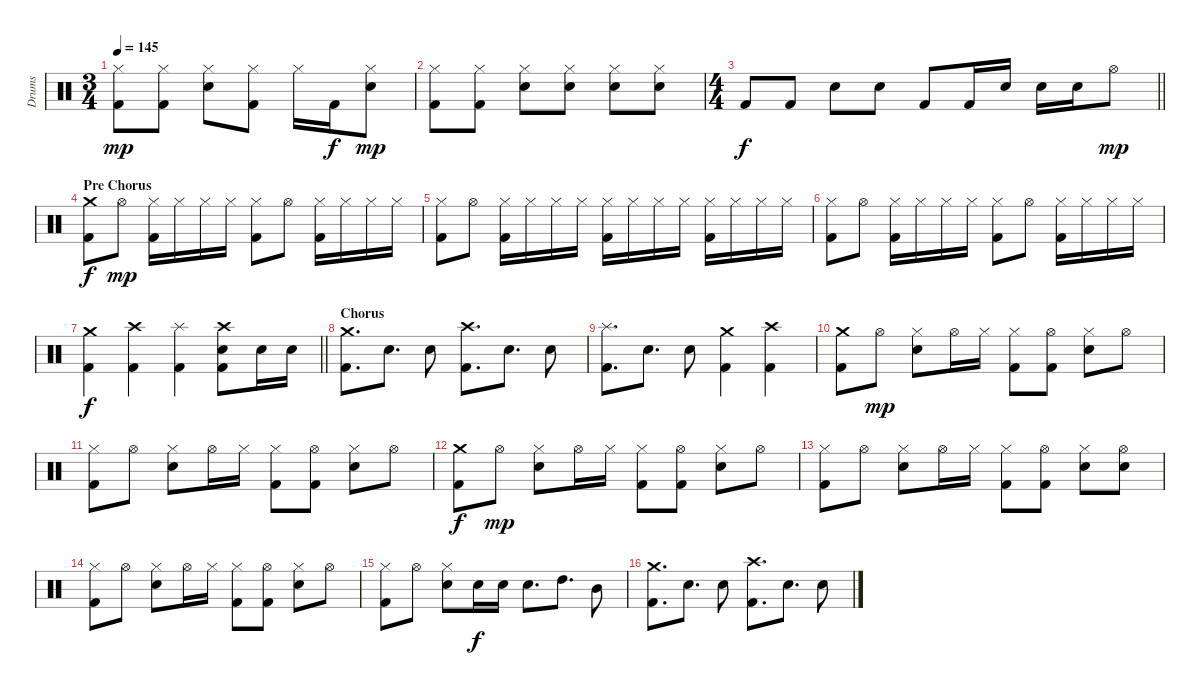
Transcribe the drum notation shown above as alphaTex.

\track ("Drums" "Drums") {instrument percussion}
\staff {score}
\articulation defaults
\ts (3 4)
\tempo 145
\clef neutral
\ks c
("Hi-Hat (closed)" "Kick (hit) 2").8{dy mp} ("Hi-Hat (closed)" "Kick (hit) 2").8 ("Hi-Hat (closed)" "Snare (hit) 2").8 ("Hi-Hat (closed)" "Kick (hit) 2").8 "Hi-Hat (closed)".16 "Kick (hit) 2".16{dy f} ("Hi-Hat (closed)" "Snare (hit) 2").8{dy mp} |
("Hi-Hat (closed)" "Kick (hit) 2").8 ("Hi-Hat (closed)" "Kick (hit) 2").8 ("Hi-Hat (closed)" "Snare (hit) 2").8 ("Hi-Hat (closed)" "Snare (hit) 2").8 ("Hi-Hat (closed)" "Snare (hit) 2").8 ("Hi-Hat (closed)" "Snare (hit) 2").8 |
\ts (4 4)
\barLineRight lightlight "Kick (hit) 2".8{dy f} "Kick (hit) 2".8 "Snare (hit) 2".8 "Snare (hit) 2".8 "Kick (hit) 2".8 "Kick (hit) 2".16 "Snare (hit) 2".16 "Snare (hit) 2".16 "Snare (hit) 2".16 "Hi-Hat (open)".8{dy mp}
|
\section ("" "Pre Chorus")
("Crash medium (hit)" "Kick (hit) 2").8{dy f} "Hi-Hat (open)".8{dy mp} ("Hi-Hat (closed)" "Kick (hit) 2").16 "Hi-Hat (closed)".16 "Hi-Hat (closed)".16 "Hi-Hat (closed)".16 ("Hi-Hat (closed)" "Kick (hit) 2").8 "Hi-Hat (open)".8 ("Hi-Hat (closed)" "Kick (hit) 2").16 "Hi-Hat (closed)".16 "Hi-Hat (closed)".16 "Hi-Hat (closed)".16 |
("Hi-Hat (closed)" "Kick (hit) 2").8 "Hi-Hat (open)".8 ("Hi-Hat (closed)" "Kick (hit) 2").16 "Hi-Hat (closed)".16 "Hi-Hat (closed)".16 "Hi-Hat (closed)".16 ("Hi-Hat (closed)" "Kick (hit) 2").16 "Hi-Hat (closed)".16 "Hi-Hat (closed)".16 "Hi-Hat (closed)".16 ("Hi-Hat (closed)" "Kick (hit) 2").16 "Hi-Hat (closed)".16 "Hi-Hat (closed)".16 "Hi-Hat (closed)".16 |
("Hi-Hat (closed)" "Kick (hit) 2").8 "Hi-Hat (open)".8 ("Hi-Hat (closed)" "Kick (hit) 2").16 "Hi-Hat (closed)".16 "Hi-Hat (closed)".16 "Hi-Hat (closed)".16 ("Hi-Hat (closed)" "Kick (hit) 2").8 "Hi-Hat (open)".8 ("Hi-Hat (closed)" "Kick (hit) 2").16 "Hi-Hat (closed)".16 "Hi-Hat (closed)".16 "Hi-Hat (closed)".16 |
\barLineRight lightlight
("Crash medium (hit)" "Kick (hit) 2").4{dy f} ("Crash high (hit)" "Kick (hit) 2").4 ("Splash (hit)" "Kick (hit) 2").4 ("Crash high (hit)" "Snare (hit) 2" "Kick (hit) 2").8 "Snare (hit) 2".16 "Snare (hit) 2".16 |
\section ("" "Chorus")
("Crash medium (hit)" "Kick (hit) 2").8{d} "Snare (hit) 2".8{d} "Snare (hit) 2".8 ("Crash high (hit)" "Kick (hit) 2").8{d} "Snare (hit) 2".8{d} "Snare (hit) 2".8 |
("Splash (hit)" "Kick (hit) 2").8{d} "Snare (hit) 2".8{d} "Snare (hit) 2".8 ("Crash medium (hit)" "Kick (hit) 2").4 ("Crash high (hit)" "Kick (hit) 2").4 |
("Crash medium (hit)" "Kick (hit) 2").8 "Hi-Hat (open)".8{dy mp} ("Hi-Hat (closed)" "Snare (hit) 2").8 "Hi-Hat (open)".16 "Hi-Hat (closed)".16 ("Hi-Hat (closed)" "Kick (hit) 2").8 ("Hi-Hat (open)" "Kick (hit) 2").8 ("Hi-Hat (closed)" "Snare (hit) 2").8 "Hi-Hat (open)".8 |
("Hi-Hat (closed)" "Kick (hit) 2").8 "Hi-Hat (open)".8 ("Hi-Hat (closed)" "Snare (hit) 2").8 "Hi-Hat (open)".16 "Hi-Hat (closed)".16 ("Hi-Hat (closed)" "Kick (hit) 2").8 ("Hi-Hat (open)" "Kick (hit) 2").8 ("Hi-Hat (closed)" "Snare (hit) 2").8 "Hi-Hat (open)".8 |
("Crash medium (hit)" "Kick (hit) 2").8{dy f} "Hi-Hat (open)".8{dy mp} ("Hi-Hat (closed)" "Snare (hit) 2").8 "Hi-Hat (open)".16 "Hi-Hat (closed)".16 ("Hi-Hat (closed)" "Kick (hit) 2").8 ("Hi-Hat (open)" "Kick (hit) 2").8 ("Hi-Hat (closed)" "Snare (hit) 2").8 "Hi-Hat (open)".8 |
("Hi-Hat (closed)" "Kick (hit) 2").8 "Hi-Hat (open)".8 ("Hi-Hat (closed)" "Snare (hit) 2").8 "Hi-Hat (open)".16 "Hi-Hat (closed)".16 ("Hi-Hat (closed)" "Kick (hit) 2").8 ("Hi-Hat (open)" "Kick (hit) 2").8 ("Hi-Hat (closed)" "Snare (hit) 2").8 ("Hi-Hat (open)" "Snare (hit) 2").8 |
("Hi-Hat (closed)" "Kick (hit) 2").8 "Hi-Hat (open)".8 ("Hi-Hat (closed)" "Snare (hit) 2").8 "Hi-Hat (open)".16 "Hi-Hat (closed)".16 ("Hi-Hat (closed)" "Kick (hit) 2").8 ("Hi-Hat (open)" "Kick (hit) 2").8 ("Hi-Hat (closed)" "Snare (hit) 2").8 "Hi-Hat (open)".8 |
("Hi-Hat (closed)" "Kick (hit) 2").8 "Hi-Hat (open)".8 ("Hi-Hat (closed)" "Snare (hit) 2").8 "Snare (hit) 2".16{dy f} "Snare (hit) 2".16 "Snare (hit) 2".8{d} "High Tom (hit)".8{d} "Mid Tom (hit)".8 |
("Crash medium (hit)" "Kick (hit) 2").8{d} "Snare (hit) 2".8{d} "Snare (hit) 2".8 ("Crash high (hit)" "Kick (hit) 2").8{d} "Snare (hit) 2".8{d} "Snare (hit) 2".8
